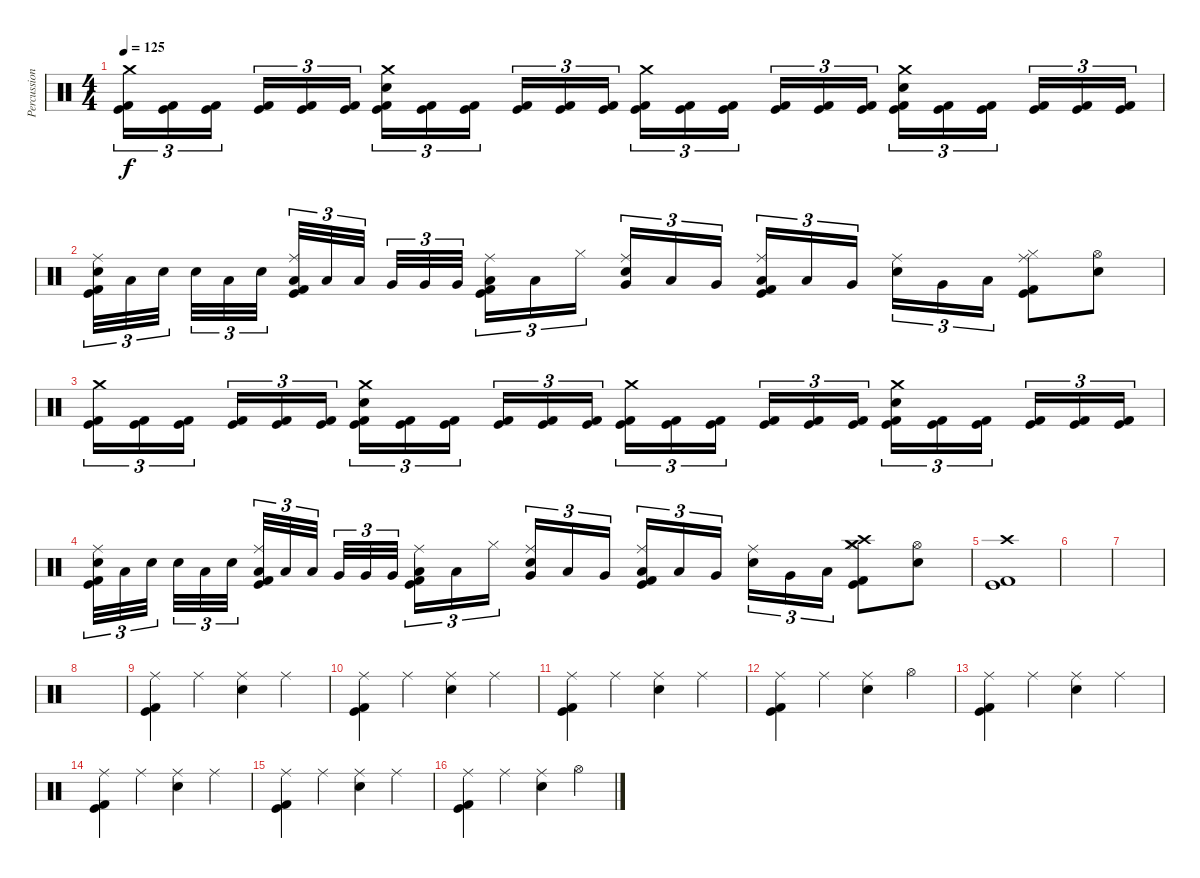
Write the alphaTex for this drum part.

\track ("Percussion" "Percussion") {instrument percussion}
\staff {score}
\articulation defaults
\ts (4 4)
\tempo 125
\clef neutral
\ks c
("Crash medium (hit)" "Kick (hit)" "Kick (hit) 2").16{tu (3 2) dy f} ("Kick (hit)" "Kick (hit) 2").16{tu (3 2)} ("Kick (hit)" "Kick (hit) 2").16{tu (3 2) beam splitsecondary} ("Kick (hit)" "Kick (hit) 2").16{tu (3 2)} ("Kick (hit)" "Kick (hit) 2").16{tu (3 2)} ("Kick (hit)" "Kick (hit) 2").16{tu (3 2)} ("Crash medium (hit)" "Electric Snare (hit)" "Kick (hit)" "Kick (hit) 2").16{tu (3 2)} ("Kick (hit)" "Kick (hit) 2").16{tu (3 2)} ("Kick (hit)" "Kick (hit) 2").16{tu (3 2) beam splitsecondary} ("Kick (hit)" "Kick (hit) 2").16{tu (3 2)} ("Kick (hit)" "Kick (hit) 2").16{tu (3 2)} ("Kick (hit)" "Kick (hit) 2").16{tu (3 2)} ("Crash medium (hit)" "Kick (hit)" "Kick (hit) 2").16{tu (3 2)} ("Kick (hit)" "Kick (hit) 2").16{tu (3 2)} ("Kick (hit)" "Kick (hit) 2").16{tu (3 2) beam splitsecondary} ("Kick (hit)" "Kick (hit) 2").16{tu (3 2)} ("Kick (hit)" "Kick (hit) 2").16{tu (3 2)} ("Kick (hit)" "Kick (hit) 2").16{tu (3 2)} ("Crash medium (hit)" "Electric Snare (hit)" "Kick (hit)" "Kick (hit) 2").16{tu (3 2)} ("Kick (hit)" "Kick (hit) 2").16{tu (3 2)} ("Kick (hit)" "Kick (hit) 2").16{tu (3 2) beam splitsecondary} ("Kick (hit)" "Kick (hit) 2").16{tu (3 2)} ("Kick (hit)" "Kick (hit) 2").16{tu (3 2)} ("Kick (hit)" "Kick (hit) 2").16{tu (3 2)} |
("Electric Snare (hit)" "Kick (hit) 2" "Kick (hit)" "Ride (middle)").32{tu (3 2)} "Low Tom (hit)".32{tu (3 2)} "Electric Snare (hit)".32{tu (3 2) beam splitsecondary} "Electric Snare (hit)".32{tu (3 2)} "Low Tom (hit)".32{tu (3 2)} "Electric Snare (hit)".32{tu (3 2) beam splitsecondary} ("Low Tom (hit)" "Kick (hit) 2" "Kick (hit)" "Ride (middle)").32{tu (3 2)} "Low Tom (hit)".32{tu (3 2)} "Low Tom (hit)".32{tu (3 2) beam splitsecondary} "Very Low Tom (hit)".32{tu (3 2)} "Very Low Tom (hit)".32{tu (3 2)} "Very Low Tom (hit)".32{tu (3 2)} ("Low Floor Tom (hit)" "Kick (hit) 2" "Kick (hit)" "Ride (middle)").16{tu (3 2)} "Low Floor Tom (hit)".16{tu (3 2)} "Hi-Hat (closed)".16{tu (3 2) beam splitsecondary} ("Very Low Tom (hit)" "Electric Snare (hit)" "Ride (middle)").16{tu (3 2)} "Low Tom (hit)".16{tu (3 2)} "Very Low Tom (hit)".16{tu (3 2)} ("Low Floor Tom (hit)" "Kick (hit) 2" "Kick (hit)" "Ride (middle)").16{tu (3 2)} "Low Tom (hit)".16{tu (3 2)} "Very Low Tom (hit)".16{tu (3 2) beam splitsecondary} ("Electric Snare (hit)" "Ride (middle)").16{tu (3 2)} "Very Low Tom (hit)".16{tu (3 2)} "Low Tom (hit)".16{tu (3 2)} ("Hi-Hat (closed)" "Kick (hit) 2" "Kick (hit)" "Ride (middle)").8 ("Hi-Hat (open)" "Electric Snare (hit)").8 |
("Crash medium (hit)" "Kick (hit)" "Kick (hit) 2").16{tu (3 2)} ("Kick (hit)" "Kick (hit) 2").16{tu (3 2)} ("Kick (hit)" "Kick (hit) 2").16{tu (3 2) beam splitsecondary} ("Kick (hit)" "Kick (hit) 2").16{tu (3 2)} ("Kick (hit)" "Kick (hit) 2").16{tu (3 2)} ("Kick (hit)" "Kick (hit) 2").16{tu (3 2)} ("Crash medium (hit)" "Electric Snare (hit)" "Kick (hit)" "Kick (hit) 2").16{tu (3 2)} ("Kick (hit)" "Kick (hit) 2").16{tu (3 2)} ("Kick (hit)" "Kick (hit) 2").16{tu (3 2) beam splitsecondary} ("Kick (hit)" "Kick (hit) 2").16{tu (3 2)} ("Kick (hit)" "Kick (hit) 2").16{tu (3 2)} ("Kick (hit)" "Kick (hit) 2").16{tu (3 2)} ("Crash medium (hit)" "Kick (hit)" "Kick (hit) 2").16{tu (3 2)} ("Kick (hit)" "Kick (hit) 2").16{tu (3 2)} ("Kick (hit)" "Kick (hit) 2").16{tu (3 2) beam splitsecondary} ("Kick (hit)" "Kick (hit) 2").16{tu (3 2)} ("Kick (hit)" "Kick (hit) 2").16{tu (3 2)} ("Kick (hit)" "Kick (hit) 2").16{tu (3 2)} ("Crash medium (hit)" "Electric Snare (hit)" "Kick (hit)" "Kick (hit) 2").16{tu (3 2)} ("Kick (hit)" "Kick (hit) 2").16{tu (3 2)} ("Kick (hit)" "Kick (hit) 2").16{tu (3 2) beam splitsecondary} ("Kick (hit)" "Kick (hit) 2").16{tu (3 2)} ("Kick (hit)" "Kick (hit) 2").16{tu (3 2)} ("Kick (hit)" "Kick (hit) 2").16{tu (3 2)} |
("Electric Snare (hit)" "Kick (hit) 2" "Kick (hit)" "Ride (middle)").32{tu (3 2)} "Low Tom (hit)".32{tu (3 2)} "Electric Snare (hit)".32{tu (3 2) beam splitsecondary} "Electric Snare (hit)".32{tu (3 2)} "Low Tom (hit)".32{tu (3 2)} "Electric Snare (hit)".32{tu (3 2) beam splitsecondary} ("Low Tom (hit)" "Kick (hit) 2" "Kick (hit)" "Ride (middle)").32{tu (3 2)} "Low Tom (hit)".32{tu (3 2)} "Low Tom (hit)".32{tu (3 2) beam splitsecondary} "Very Low Tom (hit)".32{tu (3 2)} "Very Low Tom (hit)".32{tu (3 2)} "Very Low Tom (hit)".32{tu (3 2)} ("Low Floor Tom (hit)" "Kick (hit) 2" "Kick (hit)" "Ride (middle)").16{tu (3 2)} "Low Floor Tom (hit)".16{tu (3 2)} "Hi-Hat (closed)".16{tu (3 2) beam splitsecondary} ("Very Low Tom (hit)" "Electric Snare (hit)" "Ride (middle)").16{tu (3 2)} "Low Tom (hit)".16{tu (3 2)} "Very Low Tom (hit)".16{tu (3 2)} ("Low Floor Tom (hit)" "Kick (hit) 2" "Kick (hit)" "Ride (middle)").16{tu (3 2)} "Low Tom (hit)".16{tu (3 2)} "Very Low Tom (hit)".16{tu (3 2) beam splitsecondary} ("Electric Snare (hit)" "Ride (middle)").16{tu (3 2)} "Very Low Tom (hit)".16{tu (3 2)} "Low Tom (hit)".16{tu (3 2)} ("Crash medium (hit)" "Hi-Hat (closed)" "Kick (hit) 2" "Kick (hit)" "Crash high (hit)").8 ("Hi-Hat (open)" "Electric Snare (hit)").8 |
("Crash high (hit)" "Kick (hit)" "Kick (hit) 2").1 |
|
|
|
("Ride (middle)" "Kick (hit) 2" "Kick (hit)").4 "Ride (middle)".4 ("Ride (middle)" "Electric Snare (hit)").4 "Ride (middle)".4 |
("Ride (middle)" "Kick (hit) 2" "Kick (hit)").4 "Ride (middle)".4 ("Ride (middle)" "Electric Snare (hit)").4 "Ride (middle)".4 |
("Ride (middle)" "Kick (hit) 2" "Kick (hit)").4 "Ride (middle)".4 ("Ride (middle)" "Electric Snare (hit)").4 "Ride (middle)".4 |
("Ride (middle)" "Kick (hit) 2" "Kick (hit)").4 "Ride (middle)".4 ("Ride (middle)" "Electric Snare (hit)").4 "Hi-Hat (open)".4 |
("Ride (middle)" "Kick (hit) 2" "Kick (hit)").4 "Ride (middle)".4 ("Ride (middle)" "Electric Snare (hit)").4 "Ride (middle)".4 |
("Ride (middle)" "Kick (hit) 2" "Kick (hit)").4 "Ride (middle)".4 ("Ride (middle)" "Electric Snare (hit)").4 "Ride (middle)".4 |
("Ride (middle)" "Kick (hit) 2" "Kick (hit)").4 "Ride (middle)".4 ("Ride (middle)" "Electric Snare (hit)").4 "Ride (middle)".4 |
("Ride (middle)" "Kick (hit) 2" "Kick (hit)").4 "Ride (middle)".4 ("Ride (middle)" "Electric Snare (hit)").4 "Hi-Hat (open)".4
